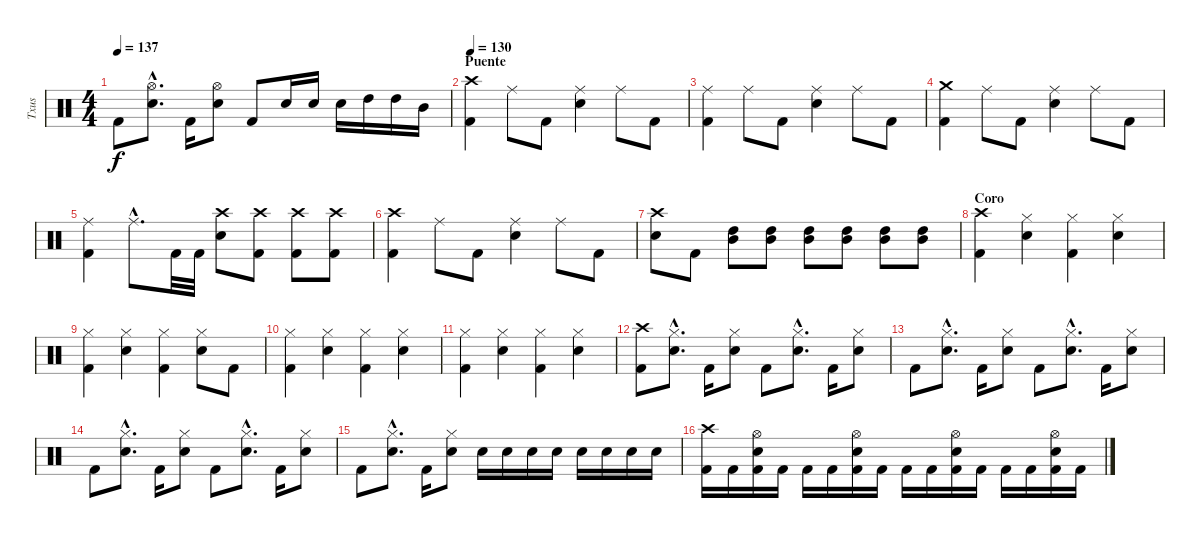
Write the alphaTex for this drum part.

\track ("Txus" "Txus") {instrument percussion}
\staff {score}
\articulation defaults
\ts (4 4)
\tempo 137
\clef neutral
\ks c "Kick (hit) 2".8{dy f}
("Electric Snare (hit)"{hac} "Hi-Hat (open)"{hac}).8{d} "Kick (hit) 2".16 ("Electric Snare (hit)" "Hi-Hat (open)").8 "Kick (hit) 2".8 "Electric Snare (hit)".16 "Electric Snare (hit)".16 "Electric Snare (hit)".16 "High Tom (hit)".16 "High Tom (hit)".16 "Mid Tom (hit)".16 |
\section ("" "Puente")
\tempo 130
("Kick (hit) 2" "Crash high (hit)").4{volume 12} "Ride (middle)".8 "Kick (hit) 2".8 ("Electric Snare (hit)" "Ride (middle)").4 "Ride (middle)".8 "Kick (hit) 2".8 |
("Kick (hit) 2" "Ride (middle)").4 "Ride (middle)".8 "Kick (hit) 2".8 ("Electric Snare (hit)" "Ride (middle)").4 "Ride (middle)".8 "Kick (hit) 2".8 |
("Kick (hit) 2" "Crash medium (hit)").4 "Ride (middle)".8 "Kick (hit) 2".8 ("Electric Snare (hit)" "Ride (middle)").4 "Ride (middle)".8 "Kick (hit) 2".8 |
("Kick (hit) 2" "Ride (middle)").4 "Ride (middle)"{hac}.8{d} "Kick (hit) 2".32 "Kick (hit) 2".32 ("Electric Snare (hit)" "Crash high (hit)").8 ("Kick (hit) 2" "Crash high (hit)").8 ("Kick (hit) 2" "Crash high (hit)").8 ("Kick (hit) 2" "Crash high (hit)").8 |
("Kick (hit) 2" "Crash high (hit)").4 "Ride (middle)".8 "Kick (hit) 2".8 ("Electric Snare (hit)" "Ride (middle)").4 "Ride (middle)".8 "Kick (hit) 2".8 |
("Electric Snare (hit)" "Crash high (hit)").8 "Kick (hit) 2".8{volume 16} ("High Tom (hit)" "Mid Tom (hit)").8 ("High Tom (hit)" "Mid Tom (hit)").8 ("High Tom (hit)" "Mid Tom (hit)").8 ("High Tom (hit)" "Mid Tom (hit)").8 ("High Tom (hit)" "Mid Tom (hit)").8 ("High Tom (hit)" "Mid Tom (hit)").8 |
\section ("" "Coro")
("Kick (hit) 2" "Crash high (hit)").4 ("Electric Snare (hit)" "Hi-Hat (closed)").4 ("Kick (hit) 2" "Hi-Hat (closed)").4 ("Electric Snare (hit)" "Hi-Hat (closed)").4 |
("Kick (hit) 2" "Hi-Hat (closed)").4 ("Electric Snare (hit)" "Hi-Hat (closed)").4 ("Kick (hit) 2" "Hi-Hat (closed)").4 ("Electric Snare (hit)" "Hi-Hat (closed)").8 "Kick (hit) 2".8 |
("Kick (hit) 2" "Hi-Hat (closed)").4 ("Electric Snare (hit)" "Hi-Hat (closed)").4 ("Kick (hit) 2" "Hi-Hat (closed)").4 ("Electric Snare (hit)" "Hi-Hat (closed)").4 |
("Kick (hit) 2" "Hi-Hat (closed)").4 ("Electric Snare (hit)" "Hi-Hat (closed)").4 ("Kick (hit) 2" "Hi-Hat (closed)").4 ("Electric Snare (hit)" "Hi-Hat (closed)").4 |
("Kick (hit) 2" "Crash high (hit)").8 ("Electric Snare (hit)"{hac} "Hi-Hat (closed)"{hac}).8{d} "Kick (hit) 2".16 ("Electric Snare (hit)" "Hi-Hat (closed)").8 "Kick (hit) 2".8 ("Electric Snare (hit)"{hac} "Hi-Hat (closed)"{hac}).8{d} "Kick (hit) 2".16 ("Electric Snare (hit)" "Hi-Hat (closed)").8 |
"Kick (hit) 2".8 ("Electric Snare (hit)"{hac} "Hi-Hat (closed)"{hac}).8{d} "Kick (hit) 2".16 ("Electric Snare (hit)" "Hi-Hat (closed)").8 "Kick (hit) 2".8 ("Electric Snare (hit)"{hac} "Hi-Hat (closed)"{hac}).8{d} "Kick (hit) 2".16 ("Electric Snare (hit)" "Hi-Hat (closed)").8 |
"Kick (hit) 2".8 ("Electric Snare (hit)"{hac} "Hi-Hat (closed)"{hac}).8{d} "Kick (hit) 2".16 ("Electric Snare (hit)" "Hi-Hat (closed)").8 "Kick (hit) 2".8 ("Electric Snare (hit)"{hac} "Hi-Hat (closed)"{hac}).8{d} "Kick (hit) 2".16 ("Electric Snare (hit)" "Hi-Hat (closed)").8 |
"Kick (hit) 2".8 ("Electric Snare (hit)"{hac} "Hi-Hat (closed)"{hac}).8{d} "Kick (hit) 2".16 ("Electric Snare (hit)" "Hi-Hat (closed)").8 "Electric Snare (hit)".16 "Electric Snare (hit)".16 "Electric Snare (hit)".16 "Electric Snare (hit)".16 "Electric Snare (hit)".16 "Electric Snare (hit)".16 "Electric Snare (hit)".16 "Electric Snare (hit)".16 |
("Kick (hit) 2" "Crash high (hit)").16 "Kick (hit) 2".16 ("Kick (hit) 2" "Electric Snare (hit)" "Hi-Hat (open)").16 "Kick (hit) 2".16 "Kick (hit) 2".16 "Kick (hit) 2".16 ("Kick (hit) 2" "Electric Snare (hit)" "Hi-Hat (open)").16 "Kick (hit) 2".16 "Kick (hit) 2".16 "Kick (hit) 2".16 ("Kick (hit) 2" "Electric Snare (hit)" "Hi-Hat (open)").16 "Kick (hit) 2".16 "Kick (hit) 2".16 "Kick (hit) 2".16 ("Kick (hit) 2" "Electric Snare (hit)" "Hi-Hat (open)").16 "Kick (hit) 2".16
